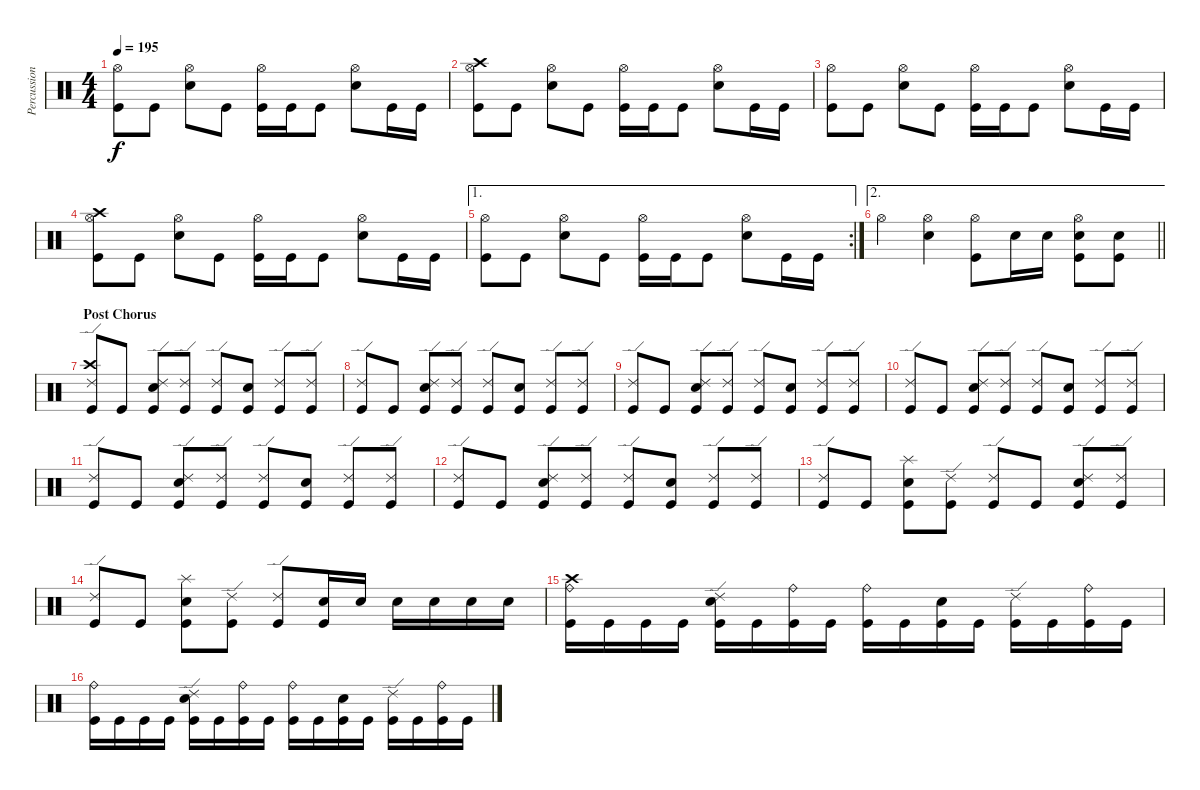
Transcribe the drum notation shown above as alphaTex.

\track ("Percussion" "Percussion") {instrument percussion}
\staff {score}
\articulation defaults
\ts (4 4)
\tempo 195
\clef neutral
\ks c
("Hi-Hat (open)" "Kick (hit)").8{dy f} "Kick (hit)".8 ("Hi-Hat (open)" "Electric Snare (hit)").8 "Kick (hit)".8 ("Hi-Hat (open)" "Kick (hit)").16 "Kick (hit)".16 "Kick (hit)".8 ("Hi-Hat (open)" "Electric Snare (hit)").8 "Kick (hit)".16 "Kick (hit)".16 |
("Crash high (hit)" "Hi-Hat (open)" "Kick (hit)").8 "Kick (hit)".8 ("Hi-Hat (open)" "Electric Snare (hit)").8 "Kick (hit)".8 ("Hi-Hat (open)" "Kick (hit)").16 "Kick (hit)".16 "Kick (hit)".8 ("Hi-Hat (open)" "Electric Snare (hit)").8 "Kick (hit)".16 "Kick (hit)".16 |
("Hi-Hat (open)" "Kick (hit)").8 "Kick (hit)".8 ("Hi-Hat (open)" "Electric Snare (hit)").8 "Kick (hit)".8 ("Hi-Hat (open)" "Kick (hit)").16 "Kick (hit)".16 "Kick (hit)".8 ("Hi-Hat (open)" "Electric Snare (hit)").8 "Kick (hit)".16 "Kick (hit)".16 |
("Crash high (hit)" "Hi-Hat (open)" "Kick (hit)").8 "Kick (hit)".8 ("Hi-Hat (open)" "Electric Snare (hit)").8 "Kick (hit)".8 ("Hi-Hat (open)" "Kick (hit)").16 "Kick (hit)".16 "Kick (hit)".8 ("Hi-Hat (open)" "Electric Snare (hit)").8 "Kick (hit)".16 "Kick (hit)".16 |
\ae 1
\rc 2
("Hi-Hat (open)" "Kick (hit)").8 "Kick (hit)".8 ("Hi-Hat (open)" "Electric Snare (hit)").8 "Kick (hit)".8 ("Hi-Hat (open)" "Kick (hit)").16 "Kick (hit)".16 "Kick (hit)".8 ("Hi-Hat (open)" "Electric Snare (hit)").8 "Kick (hit)".16 "Kick (hit)".16 |
\ae 2
\barLineRight lightlight "Hi-Hat (open)".4
("Hi-Hat (open)" "Electric Snare (hit)").4 ("Hi-Hat (open)" "Kick (hit)").8 "Electric Snare (hit)".16 "Electric Snare (hit)".16 ("Hi-Hat (open)" "Electric Snare (hit)" "Kick (hit)").8 ("Electric Snare (hit)" "Kick (hit)").8 |
\section ("" "Post Chorus")
("Crash high (hit)" "Ride (edge) 2" "Kick (hit)").8 "Kick (hit)".8 ("Ride (edge) 2" "Electric Snare (hit)" "Kick (hit)").8 ("Ride (edge) 2" "Kick (hit)").8 ("Ride (edge) 2" "Kick (hit)").8 ("Electric Snare (hit)" "Kick (hit)").8 ("Ride (edge) 2" "Kick (hit)").8 ("Ride (edge) 2" "Kick (hit)").8 |
("Ride (edge) 2" "Kick (hit)").8 "Kick (hit)".8 ("Ride (edge) 2" "Electric Snare (hit)" "Kick (hit)").8 ("Ride (edge) 2" "Kick (hit)").8 ("Ride (edge) 2" "Kick (hit)").8 ("Electric Snare (hit)" "Kick (hit)").8 ("Ride (edge) 2" "Kick (hit)").8 ("Ride (edge) 2" "Kick (hit)").8 |
("Ride (edge) 2" "Kick (hit)").8 "Kick (hit)".8 ("Ride (edge) 2" "Electric Snare (hit)" "Kick (hit)").8 ("Ride (edge) 2" "Kick (hit)").8 ("Ride (edge) 2" "Kick (hit)").8 ("Electric Snare (hit)" "Kick (hit)").8 ("Ride (edge) 2" "Kick (hit)").8 ("Ride (edge) 2" "Kick (hit)").8 |
("Ride (edge) 2" "Kick (hit)").8 "Kick (hit)".8 ("Ride (edge) 2" "Electric Snare (hit)" "Kick (hit)").8 ("Ride (edge) 2" "Kick (hit)").8 ("Ride (edge) 2" "Kick (hit)").8 ("Electric Snare (hit)" "Kick (hit)").8 ("Ride (edge) 2" "Kick (hit)").8 ("Ride (edge) 2" "Kick (hit)").8 |
("Ride (edge) 2" "Kick (hit)").8 "Kick (hit)".8 ("Ride (edge) 2" "Electric Snare (hit)" "Kick (hit)").8 ("Ride (edge) 2" "Kick (hit)").8 ("Ride (edge) 2" "Kick (hit)").8 ("Electric Snare (hit)" "Kick (hit)").8 ("Ride (edge) 2" "Kick (hit)").8 ("Ride (edge) 2" "Kick (hit)").8 |
("Ride (edge) 2" "Kick (hit)").8 "Kick (hit)".8 ("Ride (edge) 2" "Electric Snare (hit)" "Kick (hit)").8 ("Ride (edge) 2" "Kick (hit)").8 ("Ride (edge) 2" "Kick (hit)").8 ("Electric Snare (hit)" "Kick (hit)").8 ("Ride (edge) 2" "Kick (hit)").8 ("Ride (edge) 2" "Kick (hit)").8 |
("Ride (edge) 2" "Kick (hit)").8 "Kick (hit)".8 ("Splash (hit)" "Electric Snare (hit)" "Kick (hit)").8 ("Ride (edge) 2" "Kick (hit)").8 ("Ride (edge) 2" "Kick (hit)").8 "Kick (hit)".8 ("Ride (edge) 2" "Electric Snare (hit)" "Kick (hit)").8 ("Ride (edge) 2" "Kick (hit)").8 |
("Ride (edge) 2" "Kick (hit)").8 "Kick (hit)".8 ("Splash (hit)" "Electric Snare (hit)" "Kick (hit)").8 ("Ride (edge) 2" "Kick (hit)").8 ("Ride (edge) 2" "Kick (hit)").8 ("Electric Snare (hit)" "Kick (hit)").16 "Electric Snare (hit)".16 "Electric Snare (hit)".16 "Electric Snare (hit)".16 "Electric Snare (hit)".16 "Electric Snare (hit)".16 |
("Crash high (hit)" "Ride (bell)" "Kick (hit)").16 "Kick (hit)".16 "Kick (hit)".16 "Kick (hit)".16 ("Ride (edge) 2" "Electric Snare (hit)" "Kick (hit)").16 "Kick (hit)".16 ("Ride (bell)" "Kick (hit)").16 "Kick (hit)".16 ("Ride (bell)" "Kick (hit)").16 "Kick (hit)".16 ("Electric Snare (hit)" "Kick (hit)").16 "Kick (hit)".16 ("Ride (edge) 2" "Kick (hit)").16 "Kick (hit)".16 ("Ride (bell)" "Kick (hit)").16 "Kick (hit)".16 |
("Ride (bell)" "Kick (hit)").16 "Kick (hit)".16 "Kick (hit)".16 "Kick (hit)".16 ("Ride (edge) 2" "Electric Snare (hit)" "Kick (hit)").16 "Kick (hit)".16 ("Ride (bell)" "Kick (hit)").16 "Kick (hit)".16 ("Ride (bell)" "Kick (hit)").16 "Kick (hit)".16 ("Electric Snare (hit)" "Kick (hit)").16 "Kick (hit)".16 ("Ride (edge) 2" "Kick (hit)").16 "Kick (hit)".16 ("Ride (bell)" "Kick (hit)").16 "Kick (hit)".16
